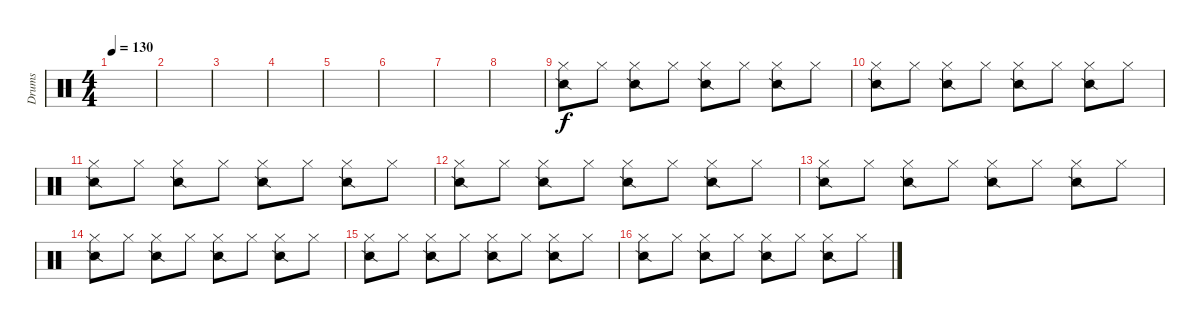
\track ("Drums" "Drums") {instrument percussion}
\staff {score}
\articulation defaults
\ts (4 4)
\tempo 130
\clef neutral
\ks c
|
|
|
|
|
|
|
|
("Snare (side stick) 2" "Hi-Hat (closed)").8 "Hi-Hat (closed)".8 ("Snare (side stick) 2" "Hi-Hat (closed)").8 "Hi-Hat (closed)".8 ("Snare (side stick) 2" "Hi-Hat (closed)").8 "Hi-Hat (closed)".8 ("Snare (side stick) 2" "Hi-Hat (closed)").8 "Hi-Hat (closed)".8 |
("Snare (side stick) 2" "Hi-Hat (closed)").8 "Hi-Hat (closed)".8 ("Snare (side stick) 2" "Hi-Hat (closed)").8 "Hi-Hat (closed)".8 ("Snare (side stick) 2" "Hi-Hat (closed)").8 "Hi-Hat (closed)".8 ("Snare (side stick) 2" "Hi-Hat (closed)").8 "Hi-Hat (closed)".8 |
("Snare (side stick) 2" "Hi-Hat (closed)").8 "Hi-Hat (closed)".8 ("Snare (side stick) 2" "Hi-Hat (closed)").8 "Hi-Hat (closed)".8 ("Snare (side stick) 2" "Hi-Hat (closed)").8 "Hi-Hat (closed)".8 ("Snare (side stick) 2" "Hi-Hat (closed)").8 "Hi-Hat (closed)".8 |
("Snare (side stick) 2" "Hi-Hat (closed)").8 "Hi-Hat (closed)".8 ("Snare (side stick) 2" "Hi-Hat (closed)").8 "Hi-Hat (closed)".8 ("Snare (side stick) 2" "Hi-Hat (closed)").8 "Hi-Hat (closed)".8 ("Snare (side stick) 2" "Hi-Hat (closed)").8 "Hi-Hat (closed)".8 |
("Snare (side stick) 2" "Hi-Hat (closed)").8 "Hi-Hat (closed)".8 ("Snare (side stick) 2" "Hi-Hat (closed)").8 "Hi-Hat (closed)".8 ("Snare (side stick) 2" "Hi-Hat (closed)").8 "Hi-Hat (closed)".8 ("Snare (side stick) 2" "Hi-Hat (closed)").8 "Hi-Hat (closed)".8 |
("Snare (side stick) 2" "Hi-Hat (closed)").8 "Hi-Hat (closed)".8 ("Snare (side stick) 2" "Hi-Hat (closed)").8 "Hi-Hat (closed)".8 ("Snare (side stick) 2" "Hi-Hat (closed)").8 "Hi-Hat (closed)".8 ("Snare (side stick) 2" "Hi-Hat (closed)").8 "Hi-Hat (closed)".8 |
("Snare (side stick) 2" "Hi-Hat (closed)").8 "Hi-Hat (closed)".8 ("Snare (side stick) 2" "Hi-Hat (closed)").8 "Hi-Hat (closed)".8 ("Snare (side stick) 2" "Hi-Hat (closed)").8 "Hi-Hat (closed)".8 ("Snare (side stick) 2" "Hi-Hat (closed)").8 "Hi-Hat (closed)".8 |
("Snare (side stick) 2" "Hi-Hat (closed)").8 "Hi-Hat (closed)".8 ("Snare (side stick) 2" "Hi-Hat (closed)").8 "Hi-Hat (closed)".8 ("Snare (side stick) 2" "Hi-Hat (closed)").8 "Hi-Hat (closed)".8 ("Snare (side stick) 2" "Hi-Hat (closed)").8 "Hi-Hat (closed)".8
